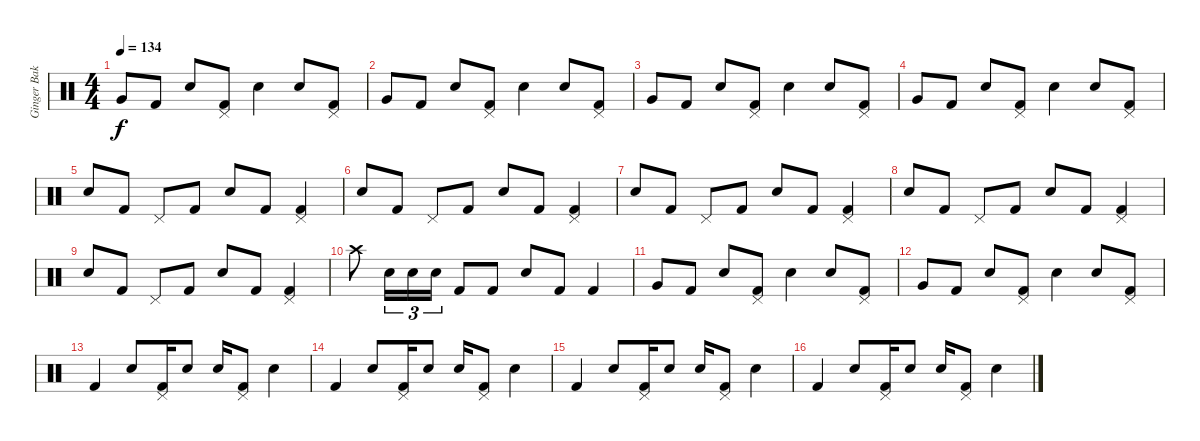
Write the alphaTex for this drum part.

\track ("Ginger Baker" "Ginger Bak") {instrument percussion}
\staff {score}
\articulation defaults
\ts (4 4)
\tempo 134
\clef neutral
\ks c "Very Low Tom (hit)".8{dy f} "Kick (hit) 2".8 "Snare (hit) 2".8
("Pedal Hi-Hat (hit)" "Kick (hit) 2").8 "Snare (hit) 2".4 "Snare (hit) 2".8 ("Pedal Hi-Hat (hit)" "Kick (hit) 2").8 |
"Very Low Tom (hit)".8 "Kick (hit) 2".8 "Snare (hit) 2".8 ("Pedal Hi-Hat (hit)" "Kick (hit) 2").8 "Snare (hit) 2".4 "Snare (hit) 2".8 ("Pedal Hi-Hat (hit)" "Kick (hit) 2").8 |
"Very Low Tom (hit)".8 "Kick (hit) 2".8 "Snare (hit) 2".8 ("Pedal Hi-Hat (hit)" "Kick (hit) 2").8 "Snare (hit) 2".4 "Snare (hit) 2".8 ("Pedal Hi-Hat (hit)" "Kick (hit) 2").8 |
"Very Low Tom (hit)".8 "Kick (hit) 2".8 "Snare (hit) 2".8 ("Pedal Hi-Hat (hit)" "Kick (hit) 2").8 "Snare (hit) 2".4 "Snare (hit) 2".8 ("Pedal Hi-Hat (hit)" "Kick (hit) 2").8 |
"Snare (hit) 2".8 "Kick (hit) 2".8 "Pedal Hi-Hat (hit)".8 "Kick (hit) 2".8 "Snare (hit) 2".8 "Kick (hit) 2".8 ("Pedal Hi-Hat (hit)" "Kick (hit) 2").4 |
"Snare (hit) 2".8 "Kick (hit) 2".8 "Pedal Hi-Hat (hit)".8 "Kick (hit) 2".8 "Snare (hit) 2".8 "Kick (hit) 2".8 ("Pedal Hi-Hat (hit)" "Kick (hit) 2").4 |
"Snare (hit) 2".8 "Kick (hit) 2".8 "Pedal Hi-Hat (hit)".8 "Kick (hit) 2".8 "Snare (hit) 2".8 "Kick (hit) 2".8 ("Pedal Hi-Hat (hit)" "Kick (hit) 2").4 |
"Snare (hit) 2".8 "Kick (hit) 2".8 "Pedal Hi-Hat (hit)".8 "Kick (hit) 2".8 "Snare (hit) 2".8 "Kick (hit) 2".8 ("Pedal Hi-Hat (hit)" "Kick (hit) 2").4 |
"Snare (hit) 2".8 "Kick (hit) 2".8 "Pedal Hi-Hat (hit)".8 "Kick (hit) 2".8 "Snare (hit) 2".8 "Kick (hit) 2".8 ("Pedal Hi-Hat (hit)" "Kick (hit) 2").4 |
"Crash high (hit)".8 "Snare (hit) 2".16{tu (3 2)} "Snare (hit) 2".16{tu (3 2)} "Snare (hit) 2".16{tu (3 2)} "Kick (hit) 2".8 "Kick (hit) 2".8 "Snare (hit) 2".8 "Kick (hit) 2".8 "Kick (hit) 2".4 |
"Very Low Tom (hit)".8 "Kick (hit) 2".8 "Snare (hit) 2".8 ("Pedal Hi-Hat (hit)" "Kick (hit) 2").8 "Snare (hit) 2".4 "Snare (hit) 2".8 ("Pedal Hi-Hat (hit)" "Kick (hit) 2").8 |
"Very Low Tom (hit)".8 "Kick (hit) 2".8 "Snare (hit) 2".8 ("Pedal Hi-Hat (hit)" "Kick (hit) 2").8 "Snare (hit) 2".4 "Snare (hit) 2".8 ("Pedal Hi-Hat (hit)" "Kick (hit) 2").8 |
"Kick (hit) 2".4 "Snare (hit) 2".8 ("Pedal Hi-Hat (hit)" "Kick (hit) 2").16 "Snare (hit) 2".8 "Snare (hit) 2".16 ("Pedal Hi-Hat (hit)" "Kick (hit) 2").8 "Snare (hit) 2".4 |
"Kick (hit) 2".4 "Snare (hit) 2".8 ("Pedal Hi-Hat (hit)" "Kick (hit) 2").16 "Snare (hit) 2".8 "Snare (hit) 2".16 ("Pedal Hi-Hat (hit)" "Kick (hit) 2").8 "Snare (hit) 2".4 |
"Kick (hit) 2".4 "Snare (hit) 2".8 ("Pedal Hi-Hat (hit)" "Kick (hit) 2").16 "Snare (hit) 2".8 "Snare (hit) 2".16 ("Pedal Hi-Hat (hit)" "Kick (hit) 2").8 "Snare (hit) 2".4 |
"Kick (hit) 2".4 "Snare (hit) 2".8 ("Pedal Hi-Hat (hit)" "Kick (hit) 2").16 "Snare (hit) 2".8 "Snare (hit) 2".16 ("Pedal Hi-Hat (hit)" "Kick (hit) 2").8 "Snare (hit) 2".4
